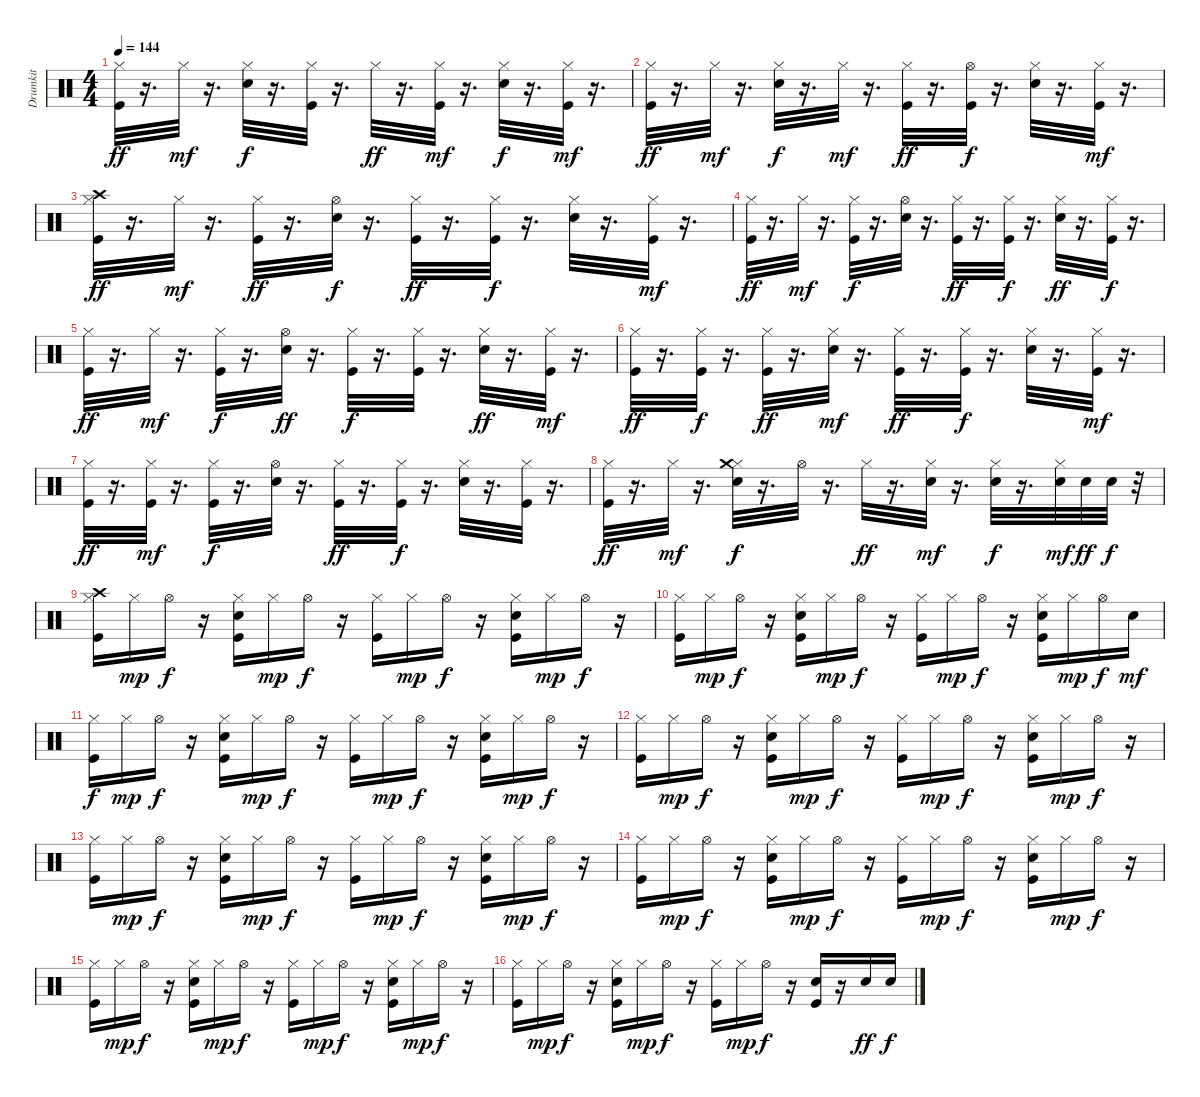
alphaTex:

\track ("Drumkit" "Drumkit") {instrument percussion}
\staff {score}
\articulation defaults
\ts (4 4)
\tempo 144
\clef neutral
\ks c
("Hi-Hat (closed)" "Kick (hit)").32{dy ff} r.16{d} "Hi-Hat (closed)".32{dy mf} r.16{d} ("Snare (hit) 2" "Hi-Hat (closed)").32{dy f} r.16{d} ("Kick (hit)" "Hi-Hat (closed)").32 r.16{d} "Hi-Hat (closed)".32{dy ff} r.16{d} ("Hi-Hat (closed)" "Kick (hit)").32{dy mf} r.16{d} ("Snare (hit) 2" "Hi-Hat (closed)").32{dy f} r.16{d} ("Hi-Hat (closed)" "Kick (hit)").32{dy mf} r.16{d} |
("Kick (hit)" "Hi-Hat (closed)").32{dy ff} r.16{d} "Hi-Hat (closed)".32{dy mf} r.16{d} ("Snare (hit) 2" "Hi-Hat (closed)").32{dy f} r.16{d} "Hi-Hat (closed)".32{dy mf} r.16{d} ("Hi-Hat (closed)" "Kick (hit)").32{dy ff} r.16{d} ("Hi-Hat (open)" "Kick (hit)").32{dy f} r.16{d} ("Snare (hit) 2" "Hi-Hat (closed)").32 r.16{d} ("Hi-Hat (closed)" "Kick (hit)").32{dy mf} r.16{d} |
("Hi-Hat (closed)" "Crash high (hit)" "Kick (hit)").32{dy ff} r.16{d} "Hi-Hat (closed)".32{dy mf} r.16{d} ("Kick (hit)" "Hi-Hat (closed)").32{dy ff} r.16{d} ("Snare (hit) 2" "Hi-Hat (open)").32{dy f} r.16{d} ("Kick (hit)" "Hi-Hat (closed)").32{dy ff} r.16{d} ("Kick (hit)" "Hi-Hat (closed)").32{dy f} r.16{d} ("Snare (hit) 2" "Hi-Hat (closed)").32 r.16{d} ("Hi-Hat (closed)" "Kick (hit)").32{dy mf} r.16{d} |
("Kick (hit)" "Hi-Hat (closed)").32{dy ff} r.16{d} "Hi-Hat (closed)".32{dy mf} r.16{d} ("Kick (hit)" "Hi-Hat (closed)").32{dy f} r.16{d} ("Snare (hit) 2" "Hi-Hat (open)").32 r.16{d} ("Hi-Hat (closed)" "Kick (hit)").32{dy ff} r.16{d} ("Kick (hit)" "Hi-Hat (closed)").32{dy f} r.16{d} ("Hi-Hat (closed)" "Snare (hit) 2").32{dy ff} r.16{d} ("Kick (hit)" "Hi-Hat (closed)").32{dy f} r.16{d} |
("Kick (hit)" "Hi-Hat (closed)").32{dy ff} r.16{d} "Hi-Hat (closed)".32{dy mf} r.16{d} ("Hi-Hat (closed)" "Kick (hit)").32{dy f} r.16{d} ("Hi-Hat (open)" "Snare (hit) 2").32{dy ff} r.16{d} ("Kick (hit)" "Hi-Hat (closed)").32{dy f} r.16{d} ("Kick (hit)" "Hi-Hat (closed)").32 r.16{d} ("Hi-Hat (closed)" "Snare (hit) 2").32{dy ff} r.16{d} ("Hi-Hat (closed)" "Kick (hit)").32{dy mf} r.16{d} |
("Kick (hit)" "Hi-Hat (closed)").32{dy ff} r.16{d} ("Kick (hit)" "Hi-Hat (closed)").32{dy f} r.16{d} ("Kick (hit)" "Hi-Hat (closed)").32{dy ff} r.16{d} ("Hi-Hat (closed)" "Snare (hit) 2").32{dy mf} r.16{d} ("Hi-Hat (closed)" "Kick (hit)").32{dy ff} r.16{d} ("Kick (hit)" "Hi-Hat (closed)").32{dy f} r.16{d} ("Snare (hit) 2" "Hi-Hat (closed)").32 r.16{d} ("Hi-Hat (closed)" "Kick (hit)").32{dy mf} r.16{d} |
("Hi-Hat (closed)" "Kick (hit)").32{dy ff} r.16{d} ("Hi-Hat (closed)" "Kick (hit)").32{dy mf} r.16{d} ("Hi-Hat (closed)" "Kick (hit)").32{dy f} r.16{d} ("Snare (hit) 2" "Hi-Hat (open)").32 r.16{d} ("Kick (hit)" "Hi-Hat (closed)").32{dy ff} r.16{d} ("Kick (hit)" "Hi-Hat (closed)").32{dy f} r.16{d} ("Hi-Hat (closed)" "Snare (hit) 2").32 r.16{d} ("Kick (hit)" "Hi-Hat (closed)").32 r.16{d} |
("Hi-Hat (closed)" "Kick (hit)").32{dy ff} r.16{d} "Hi-Hat (closed)".32{dy mf} r.16{d} ("Snare (hit) 2" "Hi-Hat (closed)" "Crash medium (hit)").32{dy f} r.16{d} "Hi-Hat (open)".32 r.16{d} "Hi-Hat (closed)".32{dy ff} r.16{d} ("Hi-Hat (closed)" "Snare (hit) 2").32{dy mf} r.16{d} ("Hi-Hat (closed)" "Snare (hit) 2").32{dy f} r.16{d} ("Hi-Hat (closed)" "Snare (hit) 2").32{dy mf} "Snare (hit) 2".32{dy ff} "Snare (hit) 2".32{dy f} r.32 |
("Kick (hit)" "Hi-Hat (closed)" "Crash high (hit)").16 "Hi-Hat (closed)".16{dy mp} "Hi-Hat (open)".16{dy f} r.16 ("Kick (hit)" "Snare (hit) 2" "Hi-Hat (closed)").16 "Hi-Hat (closed)".16{dy mp} "Hi-Hat (open)".16{dy f} r.16 ("Kick (hit)" "Hi-Hat (closed)").16 "Hi-Hat (closed)".16{dy mp} "Hi-Hat (open)".16{dy f} r.16 ("Kick (hit)" "Snare (hit) 2" "Hi-Hat (closed)").16 "Hi-Hat (closed)".16{dy mp} "Hi-Hat (open)".16{dy f} r.16 |
("Kick (hit)" "Hi-Hat (closed)").16 "Hi-Hat (closed)".16{dy mp} "Hi-Hat (open)".16{dy f} r.16 ("Kick (hit)" "Snare (hit) 2" "Hi-Hat (closed)").16 "Hi-Hat (closed)".16{dy mp} "Hi-Hat (open)".16{dy f} r.16 ("Kick (hit)" "Hi-Hat (closed)").16 "Hi-Hat (closed)".16{dy mp} "Hi-Hat (open)".16{dy f} r.16 ("Kick (hit)" "Snare (hit) 2" "Hi-Hat (closed)").16 "Hi-Hat (closed)".16{dy mp} "Hi-Hat (open)".16{dy f} "Snare (hit) 2".16{dy mf} |
("Kick (hit)" "Hi-Hat (closed)").16{dy f} "Hi-Hat (closed)".16{dy mp} "Hi-Hat (open)".16{dy f} r.16 ("Kick (hit)" "Snare (hit) 2" "Hi-Hat (closed)").16 "Hi-Hat (closed)".16{dy mp} "Hi-Hat (open)".16{dy f} r.16 ("Kick (hit)" "Hi-Hat (closed)").16 "Hi-Hat (closed)".16{dy mp} "Hi-Hat (open)".16{dy f} r.16 ("Kick (hit)" "Snare (hit) 2" "Hi-Hat (closed)").16 "Hi-Hat (closed)".16{dy mp} "Hi-Hat (open)".16{dy f} r.16 |
("Kick (hit)" "Hi-Hat (closed)").16 "Hi-Hat (closed)".16{dy mp} "Hi-Hat (open)".16{dy f} r.16 ("Kick (hit)" "Snare (hit) 2" "Hi-Hat (closed)").16 "Hi-Hat (closed)".16{dy mp} "Hi-Hat (open)".16{dy f} r.16 ("Kick (hit)" "Hi-Hat (closed)").16 "Hi-Hat (closed)".16{dy mp} "Hi-Hat (open)".16{dy f} r.16 ("Kick (hit)" "Snare (hit) 2" "Hi-Hat (closed)").16 "Hi-Hat (closed)".16{dy mp} "Hi-Hat (open)".16{dy f} r.16 |
("Kick (hit)" "Hi-Hat (closed)").16 "Hi-Hat (closed)".16{dy mp} "Hi-Hat (open)".16{dy f} r.16 ("Kick (hit)" "Snare (hit) 2" "Hi-Hat (closed)").16 "Hi-Hat (closed)".16{dy mp} "Hi-Hat (open)".16{dy f} r.16 ("Kick (hit)" "Hi-Hat (closed)").16 "Hi-Hat (closed)".16{dy mp} "Hi-Hat (open)".16{dy f} r.16 ("Kick (hit)" "Snare (hit) 2" "Hi-Hat (closed)").16 "Hi-Hat (closed)".16{dy mp} "Hi-Hat (open)".16{dy f} r.16 |
("Kick (hit)" "Hi-Hat (closed)").16 "Hi-Hat (closed)".16{dy mp} "Hi-Hat (open)".16{dy f} r.16 ("Kick (hit)" "Snare (hit) 2" "Hi-Hat (closed)").16 "Hi-Hat (closed)".16{dy mp} "Hi-Hat (open)".16{dy f} r.16 ("Kick (hit)" "Hi-Hat (closed)").16 "Hi-Hat (closed)".16{dy mp} "Hi-Hat (open)".16{dy f} r.16 ("Kick (hit)" "Snare (hit) 2" "Hi-Hat (closed)").16 "Hi-Hat (closed)".16{dy mp} "Hi-Hat (open)".16{dy f} r.16 |
("Kick (hit)" "Hi-Hat (closed)").16 "Hi-Hat (closed)".16{dy mp} "Hi-Hat (open)".16{dy f} r.16 ("Kick (hit)" "Snare (hit) 2" "Hi-Hat (closed)").16 "Hi-Hat (closed)".16{dy mp} "Hi-Hat (open)".16{dy f} r.16 ("Kick (hit)" "Hi-Hat (closed)").16 "Hi-Hat (closed)".16{dy mp} "Hi-Hat (open)".16{dy f} r.16 ("Kick (hit)" "Snare (hit) 2" "Hi-Hat (closed)").16 "Hi-Hat (closed)".16{dy mp} "Hi-Hat (open)".16{dy f} r.16 |
("Kick (hit)" "Hi-Hat (closed)").16 "Hi-Hat (closed)".16{dy mp} "Hi-Hat (open)".16{dy f} r.16 ("Kick (hit)" "Snare (hit) 2" "Hi-Hat (closed)").16 "Hi-Hat (closed)".16{dy mp} "Hi-Hat (open)".16{dy f} r.16 ("Kick (hit)" "Hi-Hat (closed)").16 "Hi-Hat (closed)".16{dy mp} "Hi-Hat (open)".16{dy f} r.16 ("Kick (hit)" "Snare (hit) 2").16 r.16 "Snare (hit) 2".16{dy ff} "Snare (hit) 2".16{dy f}
